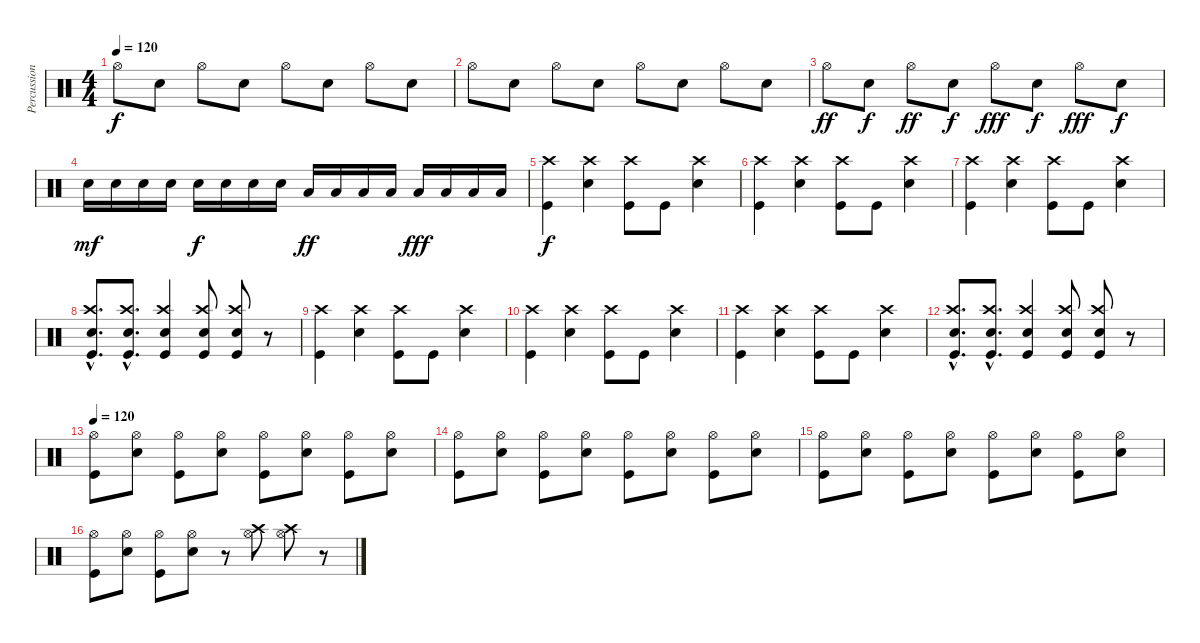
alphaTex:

\track ("Percussions" "Percussion") {instrument percussion}
\staff {score}
\articulation defaults
\ts (4 4)
\tempo 120
\clef neutral
\ks c "Hi-Hat (open)".8{dy f} "Snare (hit) 2".8 "Hi-Hat (open)".8 "Snare (hit) 2".8 "Hi-Hat (open)".8 "Snare (hit) 2".8 "Hi-Hat (open)".8 "Snare (hit) 2".8
|
"Hi-Hat (open)".8 "Snare (hit) 2".8 "Hi-Hat (open)".8 "Snare (hit) 2".8 "Hi-Hat (open)".8 "Snare (hit) 2".8 "Hi-Hat (open)".8 "Snare (hit) 2".8 |
"Hi-Hat (open)".8{dy ff} "Snare (hit) 2".8{dy f} "Hi-Hat (open)".8{dy ff} "Snare (hit) 2".8{dy f} "Hi-Hat (open)".8{dy fff} "Snare (hit) 2".8{dy f} "Hi-Hat (open)".8{dy fff} "Snare (hit) 2".8{dy f} |
"Electric Snare (hit)".16{dy mf} "Electric Snare (hit)".16 "Electric Snare (hit)".16 "Electric Snare (hit)".16 "Electric Snare (hit)".16{dy f} "Electric Snare (hit)".16 "Electric Snare (hit)".16 "Electric Snare (hit)".16 "Low Floor Tom (hit)".16{dy ff} "Low Floor Tom (hit)".16 "Low Floor Tom (hit)".16 "Low Floor Tom (hit)".16 "Low Tom (hit)".16{dy fff} "Low Tom (hit)".16 "Low Tom (hit)".16 "Low Tom (hit)".16 |
("Crash high (hit)" "Kick (hit)").4{dy f} ("Crash high (hit)" "Snare (hit) 2").4 ("Crash high (hit)" "Kick (hit)").8 "Kick (hit)".8 ("Crash high (hit)" "Snare (hit) 2").4 |
("Crash high (hit)" "Kick (hit)").4 ("Crash high (hit)" "Snare (hit) 2").4 ("Crash high (hit)" "Kick (hit)").8 "Kick (hit)".8 ("Crash high (hit)" "Snare (hit) 2").4 |
("Crash high (hit)" "Kick (hit)").4 ("Crash high (hit)" "Snare (hit) 2").4 ("Crash high (hit)" "Kick (hit)").8 "Kick (hit)".8 ("Crash high (hit)" "Snare (hit) 2").4 |
("Crash high (hit)"{hac} "Kick (hit)"{hac} "Snare (hit) 2"{hac}).8{d} ("Crash high (hit)"{hac} "Kick (hit)"{hac} "Snare (hit) 2"{hac}).8{d} ("Crash high (hit)" "Kick (hit)" "Snare (hit) 2").4 ("Crash high (hit)" "Kick (hit)" "Snare (hit) 2").8 ("Crash high (hit)" "Kick (hit)" "Snare (hit) 2").8 r.8 |
("Crash high (hit)" "Kick (hit)").4 ("Crash high (hit)" "Snare (hit) 2").4 ("Crash high (hit)" "Kick (hit)").8 "Kick (hit)".8 ("Crash high (hit)" "Snare (hit) 2").4 |
("Crash high (hit)" "Kick (hit)").4 ("Crash high (hit)" "Snare (hit) 2").4 ("Crash high (hit)" "Kick (hit)").8 "Kick (hit)".8 ("Crash high (hit)" "Snare (hit) 2").4 |
("Crash high (hit)" "Kick (hit)").4 ("Crash high (hit)" "Snare (hit) 2").4 ("Crash high (hit)" "Kick (hit)").8 "Kick (hit)".8 ("Crash high (hit)" "Snare (hit) 2").4 |
("Crash high (hit)"{hac} "Kick (hit)"{hac} "Snare (hit) 2"{hac}).8{d} ("Crash high (hit)"{hac} "Kick (hit)"{hac} "Snare (hit) 2"{hac}).8{d} ("Crash high (hit)" "Kick (hit)" "Snare (hit) 2").4 ("Crash high (hit)" "Kick (hit)" "Snare (hit) 2").8 ("Crash high (hit)" "Kick (hit)" "Snare (hit) 2").8 r.8 |
\tempo 120
("Hi-Hat (open)" "Kick (hit)").8 ("Hi-Hat (open)" "Snare (hit) 2").8 ("Hi-Hat (open)" "Kick (hit)").8 ("Hi-Hat (open)" "Snare (hit) 2").8 ("Hi-Hat (open)" "Kick (hit)").8 ("Hi-Hat (open)" "Snare (hit) 2").8 ("Hi-Hat (open)" "Kick (hit)").8 ("Hi-Hat (open)" "Snare (hit) 2").8 |
("Hi-Hat (open)" "Kick (hit)").8 ("Hi-Hat (open)" "Snare (hit) 2").8 ("Hi-Hat (open)" "Kick (hit)").8 ("Hi-Hat (open)" "Snare (hit) 2").8 ("Hi-Hat (open)" "Kick (hit)").8 ("Hi-Hat (open)" "Snare (hit) 2").8 ("Hi-Hat (open)" "Kick (hit)").8 ("Hi-Hat (open)" "Snare (hit) 2").8 |
("Hi-Hat (open)" "Kick (hit)").8 ("Hi-Hat (open)" "Snare (hit) 2").8 ("Hi-Hat (open)" "Kick (hit)").8 ("Hi-Hat (open)" "Snare (hit) 2").8 ("Hi-Hat (open)" "Kick (hit)").8 ("Hi-Hat (open)" "Snare (hit) 2").8 ("Hi-Hat (open)" "Kick (hit)").8 ("Hi-Hat (open)" "Snare (hit) 2").8 |
("Hi-Hat (open)" "Kick (hit)").8 ("Hi-Hat (open)" "Snare (hit) 2").8 ("Hi-Hat (open)" "Kick (hit)").8 ("Hi-Hat (open)" "Snare (hit) 2").8 r.8 ("Hi-Hat (open)" "Crash high (hit)").8 ("Hi-Hat (open)" "Crash high (hit)").8 r.8
